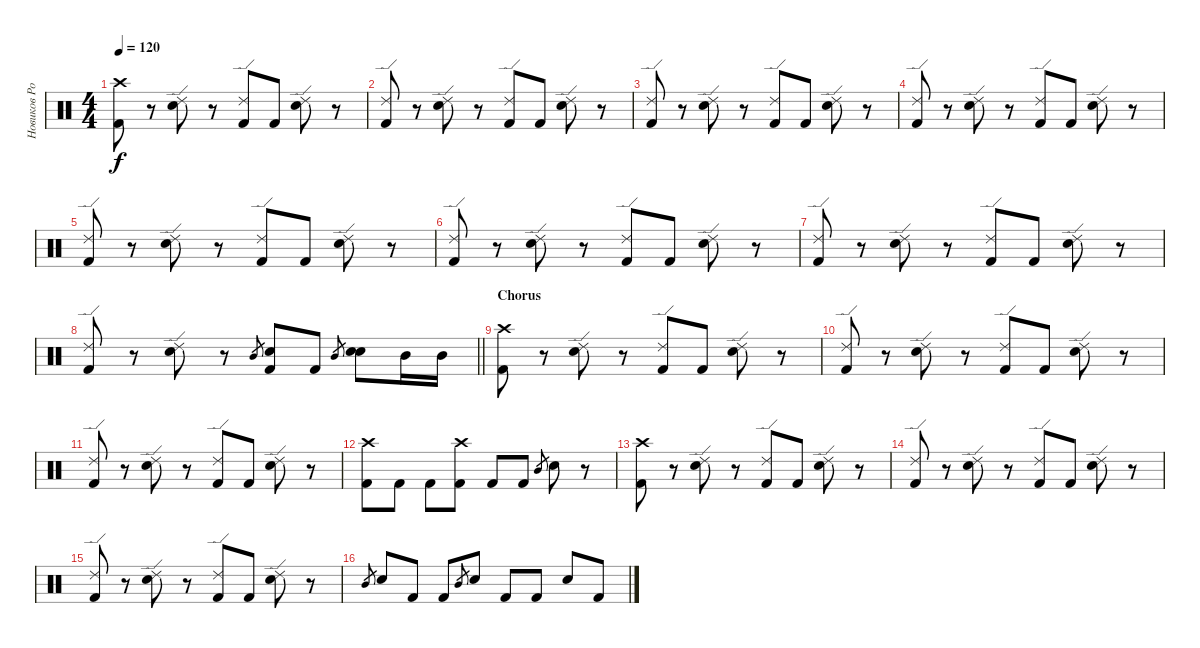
\track ("Новиков Роман  ( Ударные )" "Новиков Ро") {instrument percussion}
\staff {score}
\articulation defaults
\ts (4 4)
\tempo 120
\clef neutral
\ks c
("Crash high (hit)" "Kick (hit) 2").8{dy f} r.8 ("Ride (edge) 2" "Electric Snare (hit)").8 r.8 ("Ride (edge) 2" "Kick (hit) 2").8 "Kick (hit) 2".8 ("Ride (edge) 2" "Electric Snare (hit)").8 r.8 |
("Ride (edge) 2" "Kick (hit) 2").8 r.8 ("Ride (edge) 2" "Electric Snare (hit)").8 r.8 ("Ride (edge) 2" "Kick (hit) 2").8 "Kick (hit) 2".8 ("Ride (edge) 2" "Electric Snare (hit)").8 r.8 |
("Ride (edge) 2" "Kick (hit) 2").8 r.8 ("Ride (edge) 2" "Electric Snare (hit)").8 r.8 ("Ride (edge) 2" "Kick (hit) 2").8 "Kick (hit) 2".8 ("Ride (edge) 2" "Electric Snare (hit)").8 r.8 |
("Ride (edge) 2" "Kick (hit) 2").8 r.8 ("Ride (edge) 2" "Electric Snare (hit)").8 r.8 ("Ride (edge) 2" "Kick (hit) 2").8 "Kick (hit) 2".8 ("Ride (edge) 2" "Electric Snare (hit)").8 r.8 |
("Ride (edge) 2" "Kick (hit) 2").8 r.8 ("Ride (edge) 2" "Electric Snare (hit)").8 r.8 ("Ride (edge) 2" "Kick (hit) 2").8 "Kick (hit) 2".8 ("Ride (edge) 2" "Electric Snare (hit)").8 r.8 |
("Ride (edge) 2" "Kick (hit) 2").8 r.8 ("Ride (edge) 2" "Electric Snare (hit)").8 r.8 ("Ride (edge) 2" "Kick (hit) 2").8 "Kick (hit) 2".8 ("Ride (edge) 2" "Electric Snare (hit)").8 r.8 |
("Ride (edge) 2" "Kick (hit) 2").8 r.8 ("Ride (edge) 2" "Electric Snare (hit)").8 r.8 ("Ride (edge) 2" "Kick (hit) 2").8 "Kick (hit) 2".8 ("Ride (edge) 2" "Electric Snare (hit)").8 r.8 |
\barLineRight lightlight
("Ride (edge) 2" "Kick (hit) 2").8 r.8 ("Ride (edge) 2" "Electric Snare (hit)").8 r.8 "Mid Tom (hit)"{h}.8{gr} ("Snare (hit) 2" "Kick (hit) 2").8 "Kick (hit) 2".8 "Mid Tom (hit)"{h}.8{gr} ("Snare (hit) 2" "Electric Snare (hit)").8 "Mid Tom (hit)".16 "Mid Tom (hit)".16 |
\section ("" "Chorus")
("Crash high (hit)" "Kick (hit) 2").8 r.8 ("Ride (edge) 2" "Electric Snare (hit)").8 r.8 ("Ride (edge) 2" "Kick (hit) 2").8 "Kick (hit) 2".8 ("Ride (edge) 2" "Electric Snare (hit)").8 r.8 |
("Ride (edge) 2" "Kick (hit) 2").8 r.8 ("Ride (edge) 2" "Electric Snare (hit)").8 r.8 ("Ride (edge) 2" "Kick (hit) 2").8 "Kick (hit) 2".8 ("Ride (edge) 2" "Electric Snare (hit)").8 r.8 |
("Ride (edge) 2" "Kick (hit) 2").8 r.8 ("Ride (edge) 2" "Electric Snare (hit)").8 r.8 ("Ride (edge) 2" "Kick (hit) 2").8 "Kick (hit) 2".8 ("Ride (edge) 2" "Electric Snare (hit)").8 r.8 |
("Crash high (hit)" "Kick (hit) 2").8 "Kick (hit) 2".8 "Kick (hit) 2".8 ("Kick (hit) 2" "Crash high (hit)").8 "Kick (hit) 2".8 "Kick (hit) 2".8 "Mid Tom (hit)"{h}.8{gr} "Snare (hit) 2".8 r.8 |
("Crash high (hit)" "Kick (hit) 2").8 r.8 ("Ride (edge) 2" "Electric Snare (hit)").8 r.8 ("Ride (edge) 2" "Kick (hit) 2").8 "Kick (hit) 2".8 ("Ride (edge) 2" "Electric Snare (hit)").8 r.8 |
("Ride (edge) 2" "Kick (hit) 2").8 r.8 ("Ride (edge) 2" "Electric Snare (hit)").8 r.8 ("Ride (edge) 2" "Kick (hit) 2").8 "Kick (hit) 2".8 ("Ride (edge) 2" "Electric Snare (hit)").8 r.8 |
("Ride (edge) 2" "Kick (hit) 2").8 r.8 ("Ride (edge) 2" "Electric Snare (hit)").8 r.8 ("Ride (edge) 2" "Kick (hit) 2").8 "Kick (hit) 2".8 ("Ride (edge) 2" "Electric Snare (hit)").8 r.8 |
"Mid Tom (hit)"{h}.8{gr} "Snare (hit) 2".8 "Kick (hit) 2".8 "Kick (hit) 2".8 "Mid Tom (hit)"{h}.8{gr} "Snare (hit) 2".8 "Kick (hit) 2".8 "Kick (hit) 2".8 "Snare (hit) 2".8 "Kick (hit) 2".8
